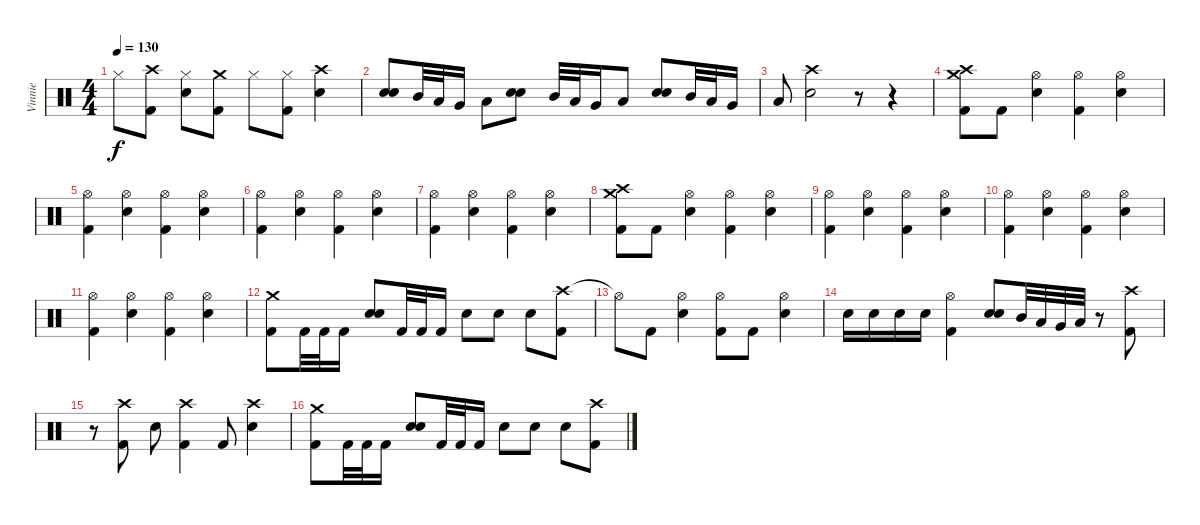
\track ("Vinnie" "Vinnie") {instrument percussion}
\staff {score}
\articulation defaults
\ts (4 4)
\tempo 130
\clef neutral
\ks c "Hi-Hat (closed)".8{dy f}
("Crash high (hit)" "Kick (hit) 2").8 ("Hi-Hat (closed)" "Snare (hit) 2").8 ("Crash medium (hit)" "Kick (hit) 2").8 "Hi-Hat (closed)".8 ("Hi-Hat (closed)" "Kick (hit) 2").8 ("Crash high (hit)" "Snare (hit) 2").4 |
("Snare (hit) 2" "Snare (hit) 2").8{bd 120} "Mid Tom (hit)".32 "Low Tom (hit)".32 "Very Low Tom (hit)".16 "Low Floor Tom (hit)".8 ("Snare (hit) 2" "Snare (hit) 2").8{bd 120} "Mid Tom (hit)".32 "Low Tom (hit)".32 "Very Low Tom (hit)".16 "Low Floor Tom (hit)".8 ("Snare (hit) 2" "Snare (hit) 2").8{bd 120} "Mid Tom (hit)".32 "Low Tom (hit)".32 "Very Low Tom (hit)".16 |
"Low Floor Tom (hit)".8 ("Crash high (hit)" "Snare (hit) 2").2 r.8 r.4 |
("Crash high (hit)" "Crash medium (hit)" "Kick (hit) 2").8 "Kick (hit) 2".8 ("Hi-Hat (open)" "Snare (hit) 2").4 ("Hi-Hat (open)" "Kick (hit) 2").4 ("Hi-Hat (open)" "Snare (hit) 2").4 |
("Hi-Hat (open)" "Kick (hit) 2").4 ("Hi-Hat (open)" "Snare (hit) 2").4 ("Hi-Hat (open)" "Kick (hit) 2").4 ("Hi-Hat (open)" "Snare (hit) 2").4 |
("Hi-Hat (open)" "Kick (hit) 2").4 ("Hi-Hat (open)" "Snare (hit) 2").4 ("Hi-Hat (open)" "Kick (hit) 2").4 ("Hi-Hat (open)" "Snare (hit) 2").4 |
("Hi-Hat (open)" "Kick (hit) 2").4 ("Hi-Hat (open)" "Snare (hit) 2").4 ("Hi-Hat (open)" "Kick (hit) 2").4 ("Hi-Hat (open)" "Snare (hit) 2").4 |
("Crash high (hit)" "Crash medium (hit)" "Kick (hit) 2").8 "Kick (hit) 2".8 ("Hi-Hat (open)" "Snare (hit) 2").4 ("Hi-Hat (open)" "Kick (hit) 2").4 ("Hi-Hat (open)" "Snare (hit) 2").4 |
("Hi-Hat (open)" "Kick (hit) 2").4 ("Hi-Hat (open)" "Snare (hit) 2").4 ("Hi-Hat (open)" "Kick (hit) 2").4 ("Hi-Hat (open)" "Snare (hit) 2").4 |
("Hi-Hat (open)" "Kick (hit) 2").4 ("Hi-Hat (open)" "Snare (hit) 2").4 ("Hi-Hat (open)" "Kick (hit) 2").4 ("Hi-Hat (open)" "Snare (hit) 2").4 |
("Hi-Hat (open)" "Kick (hit) 2").4 ("Hi-Hat (open)" "Snare (hit) 2").4 ("Hi-Hat (open)" "Kick (hit) 2").4 ("Hi-Hat (open)" "Snare (hit) 2").4 |
("Crash medium (hit)" "Kick (hit) 2").8 "Kick (hit) 2".32 "Kick (hit) 2".32 "Kick (hit) 2".16 ("Snare (hit) 2" "Snare (hit) 2").8{bd 120} "Kick (hit) 2".32 "Kick (hit) 2".32 "Kick (hit) 2".16 "Snare (hit) 2".8 "Snare (hit) 2".8 "Snare (hit) 2".8 ("Crash high (hit)" "Kick (hit) 2").8 |
"Hi-Hat (open)"{t}.8 "Kick (hit) 2".8 ("Hi-Hat (open)" "Snare (hit) 2").4 ("Hi-Hat (open)" "Kick (hit) 2").8 "Kick (hit) 2".8 ("Hi-Hat (open)" "Snare (hit) 2").4 |
"Snare (hit) 2".16 "Snare (hit) 2".16 "Snare (hit) 2".16 "Snare (hit) 2".16 ("Hi-Hat (open)" "Kick (hit) 2").4 ("Snare (hit) 2" "Snare (hit) 2").8{bd 120} "Mid Tom (hit)".32 "Low Tom (hit)".32 "Very Low Tom (hit)".32 "Low Floor Tom (hit)".32 r.8 ("Crash high (hit)" "Kick (hit) 2").8 |
r.8 ("Crash high (hit)" "Kick (hit) 2").8 "Snare (hit) 2".8 ("Crash high (hit)" "Kick (hit) 2").4 "Kick (hit) 2".8 ("Crash high (hit)" "Snare (hit) 2").4 |
("Crash medium (hit)" "Kick (hit) 2").8 "Kick (hit) 2".32 "Kick (hit) 2".32 "Kick (hit) 2".16 ("Snare (hit) 2" "Snare (hit) 2").8{bd 120} "Kick (hit) 2".32 "Kick (hit) 2".32 "Kick (hit) 2".16 "Snare (hit) 2".8 "Snare (hit) 2".8 "Snare (hit) 2".8 ("Crash high (hit)" "Kick (hit) 2").8
